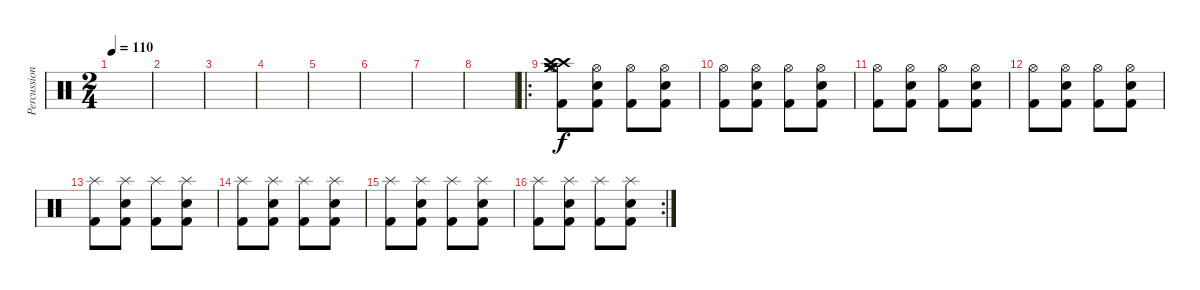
\track ("Percussion" "Percussion") {instrument percussion}
\staff {score}
\articulation defaults
\ts (2 4)
\tempo 110
\clef neutral
\ks c
|
|
|
|
|
|
|
|
\ro
("Crash high (hit)" "Crash medium (hit)" "Crash high (hit)" "Crash medium (hit)" "Hi-Hat (open)" "Kick (hit) 2").8 ("Hi-Hat (open)" "Snare (hit) 2" "Kick (hit) 2").8 ("Hi-Hat (open)" "Kick (hit) 2").8 ("Hi-Hat (open)" "Snare (hit) 2" "Kick (hit) 2").8 |
("Hi-Hat (open)" "Kick (hit) 2").8 ("Hi-Hat (open)" "Snare (hit) 2" "Kick (hit) 2").8 ("Hi-Hat (open)" "Kick (hit) 2").8 ("Hi-Hat (open)" "Snare (hit) 2" "Kick (hit) 2").8 |
("Hi-Hat (open)" "Kick (hit) 2").8 ("Hi-Hat (open)" "Snare (hit) 2" "Kick (hit) 2").8 ("Hi-Hat (open)" "Kick (hit) 2").8 ("Hi-Hat (open)" "Snare (hit) 2" "Kick (hit) 2").8 |
("Hi-Hat (open)" "Kick (hit) 2").8 ("Hi-Hat (open)" "Snare (hit) 2" "Kick (hit) 2").8 ("Hi-Hat (open)" "Kick (hit) 2").8 ("Hi-Hat (open)" "Snare (hit) 2" "Kick (hit) 2").8 |
("Splash (hit)" "Kick (hit) 2").8 ("Splash (hit)" "Snare (hit) 2" "Kick (hit) 2").8 ("Splash (hit)" "Kick (hit) 2").8 ("Splash (hit)" "Snare (hit) 2" "Kick (hit) 2").8 |
("Splash (hit)" "Kick (hit) 2").8 ("Splash (hit)" "Snare (hit) 2" "Kick (hit) 2").8 ("Splash (hit)" "Kick (hit) 2").8 ("Splash (hit)" "Snare (hit) 2" "Kick (hit) 2").8 |
("Splash (hit)" "Kick (hit) 2").8 ("Splash (hit)" "Snare (hit) 2" "Kick (hit) 2").8 ("Splash (hit)" "Kick (hit) 2").8 ("Splash (hit)" "Snare (hit) 2" "Kick (hit) 2").8 |
\rc 2
("Splash (hit)" "Kick (hit) 2").8 ("Splash (hit)" "Snare (hit) 2" "Kick (hit) 2").8 ("Splash (hit)" "Kick (hit) 2").8 ("Splash (hit)" "Snare (hit) 2" "Kick (hit) 2").8
